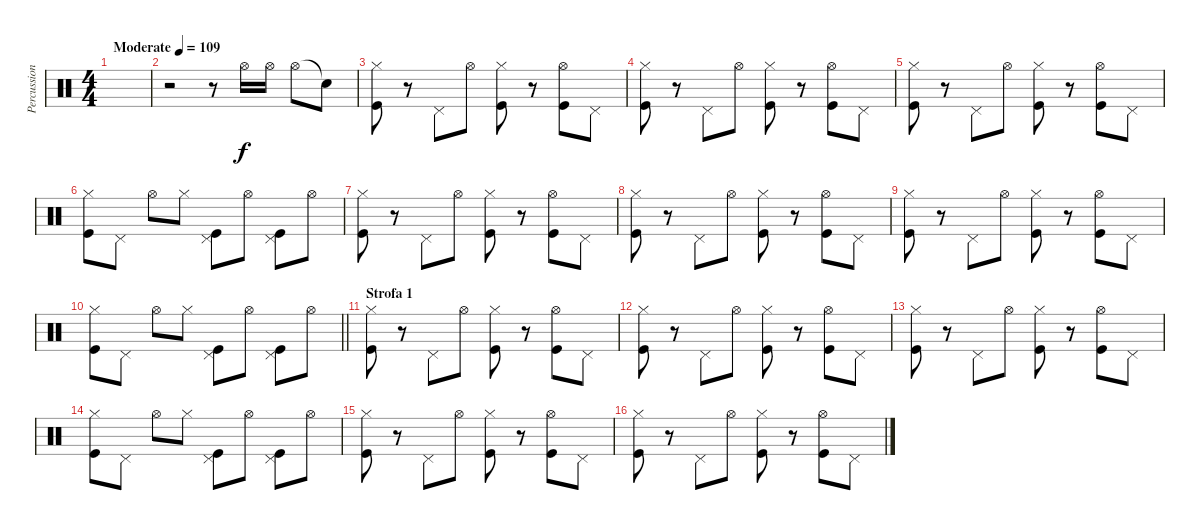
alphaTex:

\track ("Percussioni" "Percussion") {instrument percussion}
\staff {score}
\articulation defaults
\ts (4 4)
\tempo (109 "Moderate")
\clef neutral
\ks c
|
r.2 r.8 "Hi-Hat (open)".16 "Hi-Hat (open)".16 "Hi-Hat (open)".8 "Snare (hit)"{t}.8 |
("Hi-Hat (closed)" "Kick (hit)").8 r.8 "Pedal Hi-Hat (hit)".8 "Hi-Hat (open)".8 ("Hi-Hat (closed)" "Kick (hit)").8 r.8 ("Hi-Hat (open)" "Kick (hit)").8 "Pedal Hi-Hat (hit)".8 |
("Hi-Hat (closed)" "Kick (hit)").8 r.8 "Pedal Hi-Hat (hit)".8 "Hi-Hat (open)".8 ("Hi-Hat (closed)" "Kick (hit)").8 r.8 ("Hi-Hat (open)" "Kick (hit)").8 "Pedal Hi-Hat (hit)".8 |
("Hi-Hat (closed)" "Kick (hit)").8 r.8 "Pedal Hi-Hat (hit)".8 "Hi-Hat (open)".8 ("Hi-Hat (closed)" "Kick (hit)").8 r.8 ("Hi-Hat (open)" "Kick (hit)").8 "Pedal Hi-Hat (hit)".8 |
("Hi-Hat (closed)" "Kick (hit)").8 "Pedal Hi-Hat (hit)".8 "Hi-Hat (open)".8 "Hi-Hat (closed)".8 ("Pedal Hi-Hat (hit)" "Kick (hit)").8 "Hi-Hat (open)".8 ("Pedal Hi-Hat (hit)" "Kick (hit)").8 "Hi-Hat (open)".8 |
("Hi-Hat (closed)" "Kick (hit)").8 r.8 "Pedal Hi-Hat (hit)".8 "Hi-Hat (open)".8 ("Hi-Hat (closed)" "Kick (hit)").8 r.8 ("Hi-Hat (open)" "Kick (hit)").8 "Pedal Hi-Hat (hit)".8 |
("Hi-Hat (closed)" "Kick (hit)").8 r.8 "Pedal Hi-Hat (hit)".8 "Hi-Hat (open)".8 ("Hi-Hat (closed)" "Kick (hit)").8 r.8 ("Hi-Hat (open)" "Kick (hit)").8 "Pedal Hi-Hat (hit)".8 |
("Hi-Hat (closed)" "Kick (hit)").8 r.8 "Pedal Hi-Hat (hit)".8 "Hi-Hat (open)".8 ("Hi-Hat (closed)" "Kick (hit)").8 r.8 ("Hi-Hat (open)" "Kick (hit)").8 "Pedal Hi-Hat (hit)".8 |
\barLineRight lightlight
("Hi-Hat (closed)" "Kick (hit)").8 "Pedal Hi-Hat (hit)".8 "Hi-Hat (open)".8 "Hi-Hat (closed)".8 ("Pedal Hi-Hat (hit)" "Kick (hit)").8 "Hi-Hat (open)".8 ("Pedal Hi-Hat (hit)" "Kick (hit)").8 "Hi-Hat (open)".8 |
\section ("" "Strofa 1")
("Hi-Hat (closed)" "Kick (hit)").8 r.8 "Pedal Hi-Hat (hit)".8 "Hi-Hat (open)".8 ("Hi-Hat (closed)" "Kick (hit)").8 r.8 ("Hi-Hat (open)" "Kick (hit)").8 "Pedal Hi-Hat (hit)".8 |
("Hi-Hat (closed)" "Kick (hit)").8 r.8 "Pedal Hi-Hat (hit)".8 "Hi-Hat (open)".8 ("Hi-Hat (closed)" "Kick (hit)").8 r.8 ("Hi-Hat (open)" "Kick (hit)").8 "Pedal Hi-Hat (hit)".8 |
("Hi-Hat (closed)" "Kick (hit)").8 r.8 "Pedal Hi-Hat (hit)".8 "Hi-Hat (open)".8 ("Hi-Hat (closed)" "Kick (hit)").8 r.8 ("Hi-Hat (open)" "Kick (hit)").8 "Pedal Hi-Hat (hit)".8 |
("Hi-Hat (closed)" "Kick (hit)").8 "Pedal Hi-Hat (hit)".8 "Hi-Hat (open)".8 "Hi-Hat (closed)".8 ("Pedal Hi-Hat (hit)" "Kick (hit)").8 "Hi-Hat (open)".8 ("Pedal Hi-Hat (hit)" "Kick (hit)").8 "Hi-Hat (open)".8 |
("Hi-Hat (closed)" "Kick (hit)").8 r.8 "Pedal Hi-Hat (hit)".8 "Hi-Hat (open)".8 ("Hi-Hat (closed)" "Kick (hit)").8 r.8 ("Hi-Hat (open)" "Kick (hit)").8 "Pedal Hi-Hat (hit)".8 |
("Hi-Hat (closed)" "Kick (hit)").8 r.8 "Pedal Hi-Hat (hit)".8 "Hi-Hat (open)".8 ("Hi-Hat (closed)" "Kick (hit)").8 r.8 ("Hi-Hat (open)" "Kick (hit)").8 "Pedal Hi-Hat (hit)".8
